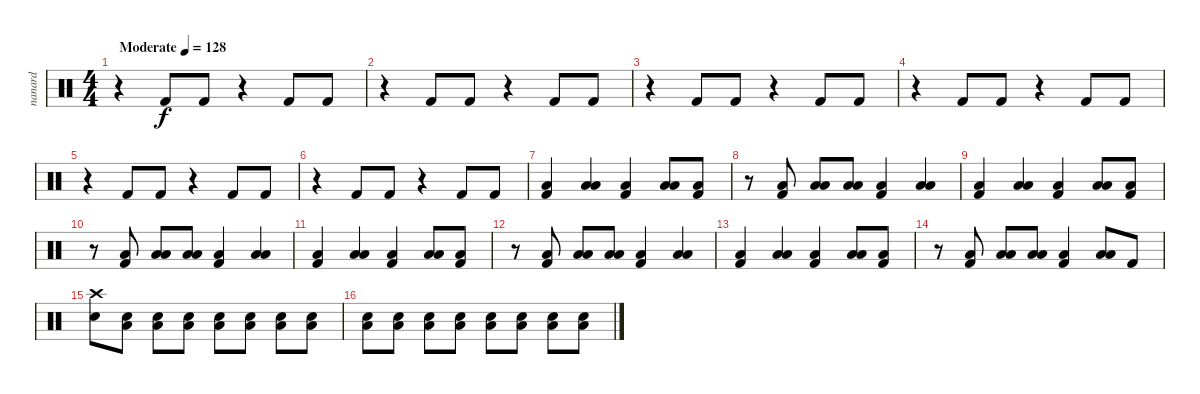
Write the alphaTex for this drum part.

\track ("nanard" "nanard") {instrument percussion}
\staff {score}
\articulation defaults
\ts (4 4)
\tempo (128 "Moderate")
\clef neutral
\ks c
r.4{dy f} "Kick (hit) 2".8 "Kick (hit) 2".8 r.4 "Kick (hit) 2".8 "Kick (hit) 2".8 |
r.4 "Kick (hit) 2".8 "Kick (hit) 2".8 r.4 "Kick (hit) 2".8 "Kick (hit) 2".8 |
r.4 "Kick (hit) 2".8 "Kick (hit) 2".8 r.4 "Kick (hit) 2".8 "Kick (hit) 2".8 |
r.4 "Kick (hit) 2".8 "Kick (hit) 2".8 r.4 "Kick (hit) 2".8 "Kick (hit) 2".8 |
r.4 "Kick (hit) 2".8 "Kick (hit) 2".8 r.4 "Kick (hit) 2".8 "Kick (hit) 2".8 |
r.4 "Kick (hit) 2".8 "Kick (hit) 2".8 r.4 "Kick (hit) 2".8 "Kick (hit) 2".8 |
("Low Floor Tom (hit)" "Kick (hit) 2").4 ("Low Tom (hit)" "Low Floor Tom (hit)").4 ("Low Floor Tom (hit)" "Kick (hit) 2").4 ("Low Tom (hit)" "Low Floor Tom (hit)").8 ("Low Floor Tom (hit)" "Kick (hit) 2").8 |
r.8 ("Low Floor Tom (hit)" "Kick (hit) 2").8 ("Low Tom (hit)" "Low Floor Tom (hit)").8 ("Low Tom (hit)" "Low Floor Tom (hit)").8 ("Low Floor Tom (hit)" "Kick (hit) 2").4 ("Low Tom (hit)" "Low Floor Tom (hit)").4 |
("Low Floor Tom (hit)" "Kick (hit) 2").4 ("Low Tom (hit)" "Low Floor Tom (hit)").4 ("Low Floor Tom (hit)" "Kick (hit) 2").4 ("Low Tom (hit)" "Low Floor Tom (hit)").8 ("Low Floor Tom (hit)" "Kick (hit) 2").8 |
r.8 ("Low Floor Tom (hit)" "Kick (hit) 2").8 ("Low Tom (hit)" "Low Floor Tom (hit)").8 ("Low Tom (hit)" "Low Floor Tom (hit)").8 ("Low Floor Tom (hit)" "Kick (hit) 2").4 ("Low Tom (hit)" "Low Floor Tom (hit)").4 |
("Low Floor Tom (hit)" "Kick (hit) 2").4 ("Low Tom (hit)" "Low Floor Tom (hit)").4 ("Low Floor Tom (hit)" "Kick (hit) 2").4 ("Low Tom (hit)" "Low Floor Tom (hit)").8 ("Low Floor Tom (hit)" "Kick (hit) 2").8 |
r.8 ("Low Floor Tom (hit)" "Kick (hit) 2").8 ("Low Tom (hit)" "Low Floor Tom (hit)").8 ("Low Tom (hit)" "Low Floor Tom (hit)").8 ("Low Floor Tom (hit)" "Kick (hit) 2").4 ("Low Tom (hit)" "Low Floor Tom (hit)").4 |
("Low Floor Tom (hit)" "Kick (hit) 2").4 ("Low Tom (hit)" "Low Floor Tom (hit)").4 ("Low Floor Tom (hit)" "Kick (hit) 2").4 ("Low Tom (hit)" "Low Floor Tom (hit)").8 ("Low Floor Tom (hit)" "Kick (hit) 2").8 |
r.8 ("Low Floor Tom (hit)" "Kick (hit) 2").8 ("Low Tom (hit)" "Low Floor Tom (hit)").8 ("Low Tom (hit)" "Low Floor Tom (hit)").8 ("Low Floor Tom (hit)" "Kick (hit) 2").4 ("Low Tom (hit)" "Low Floor Tom (hit)").8 "Kick (hit) 2".8 |
("Crash high (hit)" "Electric Snare (hit)").8 ("Electric Snare (hit)" "Low Floor Tom (hit)").8 ("Electric Snare (hit)" "Low Floor Tom (hit)").8 ("Electric Snare (hit)" "Low Floor Tom (hit)").8 ("Electric Snare (hit)" "Low Floor Tom (hit)").8 ("Electric Snare (hit)" "Low Floor Tom (hit)").8 ("Electric Snare (hit)" "Low Floor Tom (hit)").8 ("Electric Snare (hit)" "Low Floor Tom (hit)").8 |
("Electric Snare (hit)" "Low Floor Tom (hit)").8 ("Electric Snare (hit)" "Low Floor Tom (hit)").8 ("Electric Snare (hit)" "Low Floor Tom (hit)").8 ("Electric Snare (hit)" "Low Floor Tom (hit)").8 ("Electric Snare (hit)" "Low Floor Tom (hit)").8 ("Electric Snare (hit)" "Low Floor Tom (hit)").8 ("Electric Snare (hit)" "Low Floor Tom (hit)").8 ("Electric Snare (hit)" "Low Floor Tom (hit)").8
